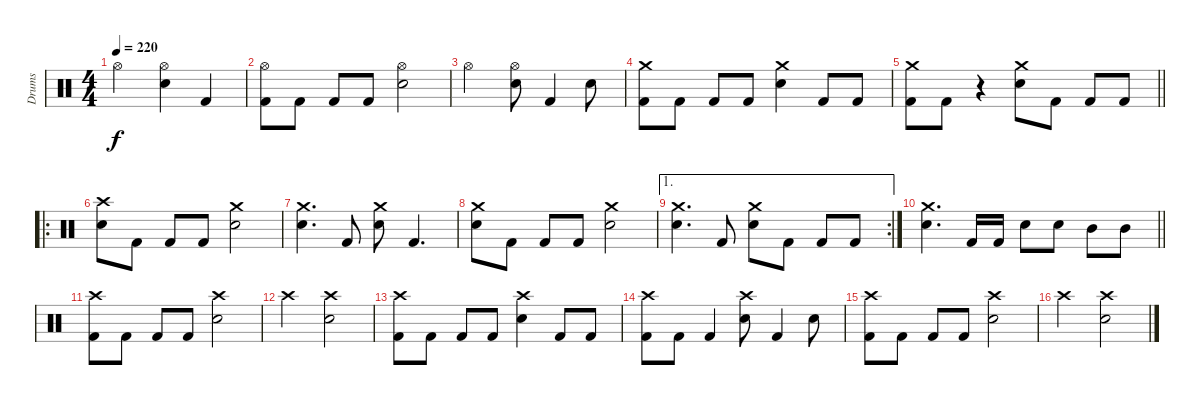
\track ("Drums" "Drums") {instrument percussion}
\staff {score}
\articulation defaults
\ts (4 4)
\tempo 220
\clef neutral
\ks c "Hi-Hat (open)".2{dy f}
("Hi-Hat (open)" "Snare (hit) 2").4 "Kick (hit) 2".4 |
("Hi-Hat (open)" "Kick (hit) 2").8 "Kick (hit) 2".8 "Kick (hit) 2".8 "Kick (hit) 2".8 ("Hi-Hat (open)" "Snare (hit) 2").2 |
"Hi-Hat (open)".2 ("Hi-Hat (open)" "Snare (hit) 2").8 "Kick (hit) 2".4 "Snare (hit) 2".8 |
("Crash medium (hit)" "Kick (hit) 2").8 "Kick (hit) 2".8 "Kick (hit) 2".8 "Kick (hit) 2".8 ("Crash medium (hit)" "Snare (hit) 2").4 "Kick (hit) 2".8 "Kick (hit) 2".8 |
\barLineRight lightlight
("Crash medium (hit)" "Kick (hit) 2").8 "Kick (hit) 2".8 r.4 ("Crash medium (hit)" "Snare (hit) 2").8 "Kick (hit) 2".8 "Kick (hit) 2".8 "Kick (hit) 2".8 |
\ro
("Crash high (hit)" "Snare (hit) 2").8 "Kick (hit) 2".8 "Kick (hit) 2".8 "Kick (hit) 2".8 ("Crash medium (hit)" "Snare (hit) 2").2 |
("Crash medium (hit)" "Snare (hit) 2").4{d} "Kick (hit) 2".8 ("Crash medium (hit)" "Snare (hit) 2").8 "Kick (hit) 2".4{d} |
("Crash medium (hit)" "Snare (hit) 2").8 "Kick (hit) 2".8 "Kick (hit) 2".8 "Kick (hit) 2".8 ("Crash medium (hit)" "Snare (hit) 2").2 |
\ae 1
\rc 2
("Crash medium (hit)" "Snare (hit) 2").4{d} "Kick (hit) 2".8 ("Crash medium (hit)" "Snare (hit) 2").8 "Kick (hit) 2".8 "Kick (hit) 2".8 "Kick (hit) 2".8 |
\barLineRight lightlight
("Crash medium (hit)" "Snare (hit) 2").4{d} "Kick (hit) 2".16 "Kick (hit) 2".16 "Snare (hit) 2".8 "Snare (hit) 2".8 "Mid Tom (hit)".8 "Mid Tom (hit)".8 |
("Crash high (hit)" "Kick (hit) 2").8 "Kick (hit) 2".8 "Kick (hit) 2".8 "Kick (hit) 2".8 ("Crash high (hit)" "Snare (hit) 2").2 |
"Crash high (hit)".2 ("Crash high (hit)" "Snare (hit) 2").2 |
("Crash high (hit)" "Kick (hit) 2").8 "Kick (hit) 2".8 "Kick (hit) 2".8 "Kick (hit) 2".8 ("Crash high (hit)" "Snare (hit) 2").4 "Kick (hit) 2".8 "Kick (hit) 2".8 |
("Crash high (hit)" "Kick (hit) 2").8 "Kick (hit) 2".8 "Kick (hit) 2".4 ("Crash high (hit)" "Snare (hit) 2").8 "Kick (hit) 2".4 "Snare (hit) 2".8 |
("Crash high (hit)" "Kick (hit) 2").8 "Kick (hit) 2".8 "Kick (hit) 2".8 "Kick (hit) 2".8 ("Crash high (hit)" "Snare (hit) 2").2 |
"Crash high (hit)".2 ("Crash high (hit)" "Snare (hit) 2").2
